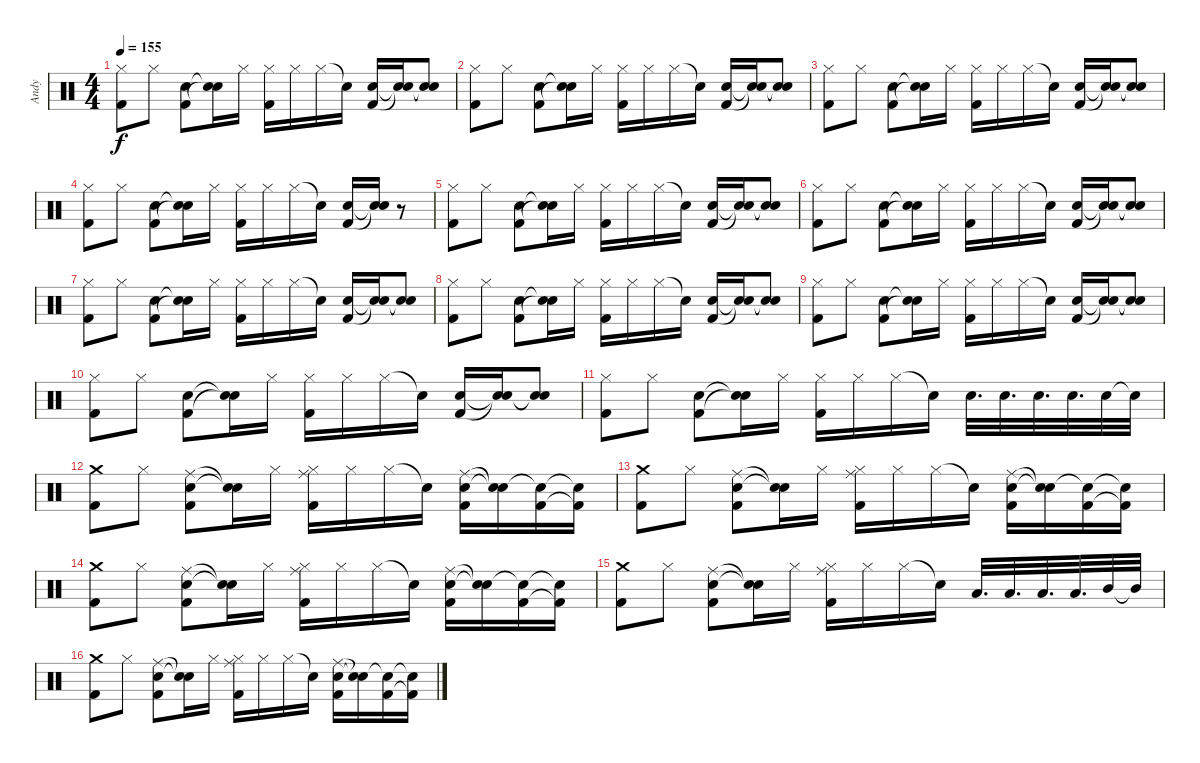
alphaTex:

\track ("Andy" "Andy") {instrument percussion}
\staff {score}
\articulation defaults
\ts (4 4)
\tempo 155
\clef neutral
\ks c
("Hi-Hat (closed)" "Kick (hit) 2").8{dy f} "Hi-Hat (closed)".8 ("Electric Snare (hit)" "Kick (hit) 2").8 ("Snare (hit)"{t} "Snare (hit)"{t}).16 "Hi-Hat (closed)".16 ("Hi-Hat (closed)" "Kick (hit) 2").16 "Hi-Hat (closed)".16 "Hi-Hat (closed)".16 "Electric Snare (hit)"{t}.16 ("Electric Snare (hit)" "Kick (hit) 2").16 ("Snare (hit)"{t} "Snare (hit)"{t}).16 ("Snare (hit)"{t} "Snare (hit)"{t}).8 |
("Hi-Hat (closed)" "Kick (hit) 2").8 "Hi-Hat (closed)".8 ("Electric Snare (hit)" "Kick (hit) 2").8 ("Snare (hit)"{t} "Snare (hit)"{t}).16 "Hi-Hat (closed)".16 ("Hi-Hat (closed)" "Kick (hit) 2").16 "Hi-Hat (closed)".16 "Hi-Hat (closed)".16 "Electric Snare (hit)"{t}.16 ("Electric Snare (hit)" "Kick (hit) 2").16 ("Snare (hit)"{t} "Snare (hit)"{t}).16 ("Snare (hit)"{t} "Snare (hit)"{t}).8 |
("Hi-Hat (closed)" "Kick (hit) 2").8 "Hi-Hat (closed)".8 ("Electric Snare (hit)" "Kick (hit) 2").8 ("Snare (hit)"{t} "Snare (hit)"{t}).16 "Hi-Hat (closed)".16 ("Hi-Hat (closed)" "Kick (hit) 2").16 "Hi-Hat (closed)".16 "Hi-Hat (closed)".16 "Electric Snare (hit)"{t}.16 ("Electric Snare (hit)" "Kick (hit) 2").16 ("Snare (hit)"{t} "Snare (hit)"{t}).16 ("Snare (hit)"{t} "Snare (hit)"{t}).8 |
("Hi-Hat (closed)" "Kick (hit) 2").8 "Hi-Hat (closed)".8 ("Electric Snare (hit)" "Kick (hit) 2").8 ("Snare (hit)"{t} "Snare (hit)"{t}).16 "Hi-Hat (closed)".16 ("Hi-Hat (closed)" "Kick (hit) 2").16 "Hi-Hat (closed)".16 "Hi-Hat (closed)".16 "Electric Snare (hit)"{t}.16 ("Electric Snare (hit)" "Kick (hit) 2").16 ("Snare (hit)"{t} "Snare (hit)"{t}).16 r.8 |
("Hi-Hat (closed)" "Kick (hit) 2").8 "Hi-Hat (closed)".8 ("Electric Snare (hit)" "Kick (hit) 2").8 ("Snare (hit)"{t} "Snare (hit)"{t}).16 "Hi-Hat (closed)".16 ("Hi-Hat (closed)" "Kick (hit) 2").16 "Hi-Hat (closed)".16 "Hi-Hat (closed)".16 "Electric Snare (hit)"{t}.16 ("Electric Snare (hit)" "Kick (hit) 2").16 ("Snare (hit)"{t} "Snare (hit)"{t}).16 ("Snare (hit)"{t} "Snare (hit)"{t}).8 |
("Hi-Hat (closed)" "Kick (hit) 2").8 "Hi-Hat (closed)".8 ("Electric Snare (hit)" "Kick (hit) 2").8 ("Snare (hit)"{t} "Snare (hit)"{t}).16 "Hi-Hat (closed)".16 ("Hi-Hat (closed)" "Kick (hit) 2").16 "Hi-Hat (closed)".16 "Hi-Hat (closed)".16 "Electric Snare (hit)"{t}.16 ("Electric Snare (hit)" "Kick (hit) 2").16 ("Snare (hit)"{t} "Snare (hit)"{t}).16 ("Snare (hit)"{t} "Snare (hit)"{t}).8 |
("Hi-Hat (closed)" "Kick (hit) 2").8 "Hi-Hat (closed)".8 ("Electric Snare (hit)" "Kick (hit) 2").8 ("Snare (hit)"{t} "Snare (hit)"{t}).16 "Hi-Hat (closed)".16 ("Hi-Hat (closed)" "Kick (hit) 2").16 "Hi-Hat (closed)".16 "Hi-Hat (closed)".16 "Electric Snare (hit)"{t}.16 ("Electric Snare (hit)" "Kick (hit) 2").16 ("Snare (hit)"{t} "Snare (hit)"{t}).16 ("Snare (hit)"{t} "Snare (hit)"{t}).8 |
("Hi-Hat (closed)" "Kick (hit) 2").8 "Hi-Hat (closed)".8 ("Electric Snare (hit)" "Kick (hit) 2").8 ("Snare (hit)"{t} "Snare (hit)"{t}).16 "Hi-Hat (closed)".16 ("Hi-Hat (closed)" "Kick (hit) 2").16 "Hi-Hat (closed)".16 "Hi-Hat (closed)".16 "Electric Snare (hit)"{t}.16 ("Electric Snare (hit)" "Kick (hit) 2").16 ("Snare (hit)"{t} "Snare (hit)"{t}).16 ("Snare (hit)"{t} "Snare (hit)"{t}).8 |
("Hi-Hat (closed)" "Kick (hit) 2").8 "Hi-Hat (closed)".8 ("Electric Snare (hit)" "Kick (hit) 2").8 ("Snare (hit)"{t} "Snare (hit)"{t}).16 "Hi-Hat (closed)".16 ("Hi-Hat (closed)" "Kick (hit) 2").16 "Hi-Hat (closed)".16 "Hi-Hat (closed)".16 "Electric Snare (hit)"{t}.16 ("Electric Snare (hit)" "Kick (hit) 2").16 ("Snare (hit)"{t} "Snare (hit)"{t}).16 ("Snare (hit)"{t} "Snare (hit)"{t}).8 |
("Hi-Hat (closed)" "Kick (hit) 2").8 "Hi-Hat (closed)".8 ("Electric Snare (hit)" "Kick (hit) 2").8 ("Snare (hit)"{t} "Snare (hit)"{t}).16 "Hi-Hat (closed)".16 ("Hi-Hat (closed)" "Kick (hit) 2").16 "Hi-Hat (closed)".16 "Hi-Hat (closed)".16 "Electric Snare (hit)"{t}.16 ("Electric Snare (hit)" "Kick (hit) 2").16 ("Snare (hit)"{t} "Snare (hit)"{t}).16 ("Snare (hit)"{t} "Snare (hit)"{t}).8 |
("Hi-Hat (closed)" "Kick (hit) 2").8 "Hi-Hat (closed)".8 ("Electric Snare (hit)" "Kick (hit) 2").8 ("Snare (hit)"{t} "Snare (hit)"{t}).16 "Hi-Hat (closed)".16 ("Hi-Hat (closed)" "Kick (hit) 2").16 "Hi-Hat (closed)".16 "Hi-Hat (closed)".16 "Electric Snare (hit)"{t}.16 "Electric Snare (hit)".32{d} "Electric Snare (hit)".32{d} "Electric Snare (hit)".32{d} "Electric Snare (hit)".32{d} "Electric Snare (hit)".32 "Electric Snare (hit)"{t}.32 |
("Crash medium (hit)" "Kick (hit) 2").8 "Hi-Hat (closed)".8 ("Ride (middle)" "Electric Snare (hit)" "Kick (hit) 2").8 ("Snare (hit)"{t} "Snare (hit)"{t}).16 "Hi-Hat (closed)".16 ("Ride (middle)" "Hi-Hat (closed)" "Kick (hit) 2").16 "Hi-Hat (closed)".16 "Hi-Hat (closed)".16 "Electric Snare (hit)"{t}.16 ("Ride (middle)" "Electric Snare (hit)" "Kick (hit) 2").16 ("Snare (hit)"{t} "Snare (hit)"{t}).16 ("Snare (hit)"{t} "Kick (hit) 2").16 ("Snare (hit)"{t} "Kick (hit) 2"{t}).16 |
("Crash medium (hit)" "Kick (hit) 2").8 "Hi-Hat (closed)".8 ("Ride (middle)" "Electric Snare (hit)" "Kick (hit) 2").8 ("Snare (hit)"{t} "Snare (hit)"{t}).16 "Hi-Hat (closed)".16 ("Ride (middle)" "Hi-Hat (closed)" "Kick (hit) 2").16 "Hi-Hat (closed)".16 "Hi-Hat (closed)".16 "Electric Snare (hit)"{t}.16 ("Ride (middle)" "Electric Snare (hit)" "Kick (hit) 2").16 ("Snare (hit)"{t} "Snare (hit)"{t}).16 ("Snare (hit)"{t} "Kick (hit) 2").16 ("Snare (hit)"{t} "Kick (hit) 2"{t}).16 |
("Crash medium (hit)" "Kick (hit) 2").8 "Hi-Hat (closed)".8 ("Ride (middle)" "Electric Snare (hit)" "Kick (hit) 2").8 ("Snare (hit)"{t} "Snare (hit)"{t}).16 "Hi-Hat (closed)".16 ("Ride (middle)" "Hi-Hat (closed)" "Kick (hit) 2").16 "Hi-Hat (closed)".16 "Hi-Hat (closed)".16 "Electric Snare (hit)"{t}.16 ("Ride (middle)" "Electric Snare (hit)" "Kick (hit) 2").16 ("Snare (hit)"{t} "Snare (hit)"{t}).16 ("Snare (hit)"{t} "Kick (hit) 2").16 ("Snare (hit)"{t} "Kick (hit) 2"{t}).16 |
("Crash medium (hit)" "Kick (hit) 2").8 "Hi-Hat (closed)".8 ("Ride (middle)" "Electric Snare (hit)" "Kick (hit) 2").8 ("Snare (hit)"{t} "Snare (hit)"{t}).16 "Hi-Hat (closed)".16 ("Ride (middle)" "Hi-Hat (closed)" "Kick (hit) 2").16 "Hi-Hat (closed)".16 "Hi-Hat (closed)".16 "Electric Snare (hit)"{t}.16 "Low Tom (hit)".32{d} "Low Tom (hit)".32{d} "Low Tom (hit)".32{d} "Low Tom (hit)".32{d} "Mid Tom (hit)".32 "Mid Tom (hit)"{t}.32 |
("Crash medium (hit)" "Kick (hit) 2").8 "Hi-Hat (closed)".8 ("Ride (middle)" "Electric Snare (hit)" "Kick (hit) 2").8 ("Snare (hit)"{t} "Snare (hit)"{t}).16 "Hi-Hat (closed)".16 ("Ride (middle)" "Hi-Hat (closed)" "Kick (hit) 2").16 "Hi-Hat (closed)".16 "Hi-Hat (closed)".16 "Electric Snare (hit)"{t}.16 ("Ride (middle)" "Electric Snare (hit)" "Kick (hit) 2").16 ("Snare (hit)"{t} "Snare (hit)"{t}).16 ("Snare (hit)"{t} "Kick (hit) 2").16 ("Snare (hit)"{t} "Kick (hit) 2"{t}).16
